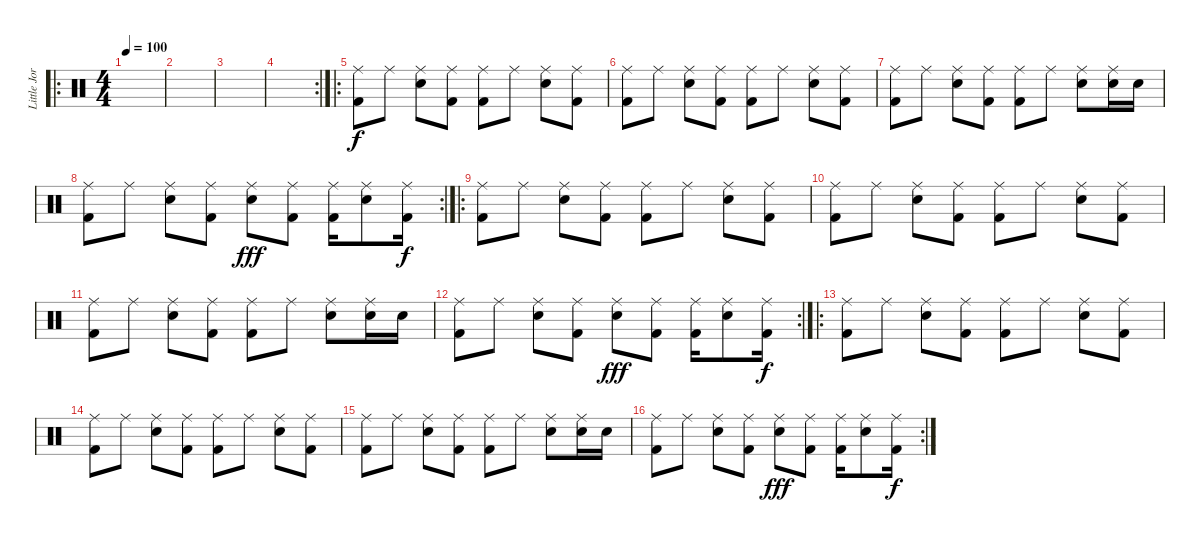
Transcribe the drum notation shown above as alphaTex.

\track ("Little JorDiSoN" "Little Jor") {instrument percussion}
\staff {score}
\articulation defaults
\ro
\ts (4 4)
\tempo 100
\clef neutral
\ks c
|
|
|
\rc 2
|
\ro
("Ride (middle)" "Kick (hit) 2").8 "Ride (middle)".8 ("Ride (middle)" "Electric Snare (hit)").8 ("Ride (middle)" "Kick (hit) 2").8 ("Ride (middle)" "Kick (hit) 2").8 "Ride (middle)".8 ("Ride (middle)" "Electric Snare (hit)").8 ("Ride (middle)" "Kick (hit) 2").8 |
("Ride (middle)" "Kick (hit) 2").8 "Ride (middle)".8 ("Ride (middle)" "Electric Snare (hit)").8 ("Ride (middle)" "Kick (hit) 2").8 ("Ride (middle)" "Kick (hit) 2").8 "Ride (middle)".8 ("Ride (middle)" "Electric Snare (hit)").8 ("Ride (middle)" "Kick (hit) 2").8 |
("Ride (middle)" "Kick (hit) 2").8 "Ride (middle)".8 ("Ride (middle)" "Electric Snare (hit)").8 ("Ride (middle)" "Kick (hit) 2").8 ("Ride (middle)" "Kick (hit) 2").8 "Ride (middle)".8 ("Ride (middle)" "Electric Snare (hit)").8 ("Ride (middle)" "Electric Snare (hit)").16 "Electric Snare (hit)".16 |
\rc 2
("Ride (middle)" "Kick (hit) 2").8 "Ride (middle)".8 ("Ride (middle)" "Electric Snare (hit)").8 ("Ride (middle)" "Kick (hit) 2").8 ("Ride (middle)" "Electric Snare (hit)").8{dy fff} ("Ride (middle)" "Kick (hit) 2").8 ("Ride (middle)" "Kick (hit) 2").16 ("Ride (middle)" "Electric Snare (hit)").8 ("Ride (middle)" "Kick (hit) 2").16{dy f} |
\ro
("Ride (middle)" "Kick (hit) 2").8 "Ride (middle)".8 ("Ride (middle)" "Electric Snare (hit)").8 ("Ride (middle)" "Kick (hit) 2").8 ("Ride (middle)" "Kick (hit) 2").8 "Ride (middle)".8 ("Ride (middle)" "Electric Snare (hit)").8 ("Ride (middle)" "Kick (hit) 2").8 |
("Ride (middle)" "Kick (hit) 2").8 "Ride (middle)".8 ("Ride (middle)" "Electric Snare (hit)").8 ("Ride (middle)" "Kick (hit) 2").8 ("Ride (middle)" "Kick (hit) 2").8 "Ride (middle)".8 ("Ride (middle)" "Electric Snare (hit)").8 ("Ride (middle)" "Kick (hit) 2").8 |
("Ride (middle)" "Kick (hit) 2").8 "Ride (middle)".8 ("Ride (middle)" "Electric Snare (hit)").8 ("Ride (middle)" "Kick (hit) 2").8 ("Ride (middle)" "Kick (hit) 2").8 "Ride (middle)".8 ("Ride (middle)" "Electric Snare (hit)").8 ("Ride (middle)" "Electric Snare (hit)").16 "Electric Snare (hit)".16 |
\rc 2
("Ride (middle)" "Kick (hit) 2").8 "Ride (middle)".8 ("Ride (middle)" "Electric Snare (hit)").8 ("Ride (middle)" "Kick (hit) 2").8 ("Ride (middle)" "Electric Snare (hit)").8{dy fff} ("Ride (middle)" "Kick (hit) 2").8 ("Ride (middle)" "Kick (hit) 2").16 ("Ride (middle)" "Electric Snare (hit)").8 ("Ride (middle)" "Kick (hit) 2").16{dy f} |
\ro
("Ride (middle)" "Kick (hit) 2").8 "Ride (middle)".8 ("Ride (middle)" "Electric Snare (hit)").8 ("Ride (middle)" "Kick (hit) 2").8 ("Ride (middle)" "Kick (hit) 2").8 "Ride (middle)".8 ("Ride (middle)" "Electric Snare (hit)").8 ("Ride (middle)" "Kick (hit) 2").8 |
("Ride (middle)" "Kick (hit) 2").8 "Ride (middle)".8 ("Ride (middle)" "Electric Snare (hit)").8 ("Ride (middle)" "Kick (hit) 2").8 ("Ride (middle)" "Kick (hit) 2").8 "Ride (middle)".8 ("Ride (middle)" "Electric Snare (hit)").8 ("Ride (middle)" "Kick (hit) 2").8 |
("Ride (middle)" "Kick (hit) 2").8 "Ride (middle)".8 ("Ride (middle)" "Electric Snare (hit)").8 ("Ride (middle)" "Kick (hit) 2").8 ("Ride (middle)" "Kick (hit) 2").8 "Ride (middle)".8 ("Ride (middle)" "Electric Snare (hit)").8 ("Ride (middle)" "Electric Snare (hit)").16 "Electric Snare (hit)".16 |
\rc 2
("Ride (middle)" "Kick (hit) 2").8 "Ride (middle)".8 ("Ride (middle)" "Electric Snare (hit)").8 ("Ride (middle)" "Kick (hit) 2").8 ("Ride (middle)" "Electric Snare (hit)").8{dy fff} ("Ride (middle)" "Kick (hit) 2").8 ("Ride (middle)" "Kick (hit) 2").16 ("Ride (middle)" "Electric Snare (hit)").8 ("Ride (middle)" "Kick (hit) 2").16{dy f}
